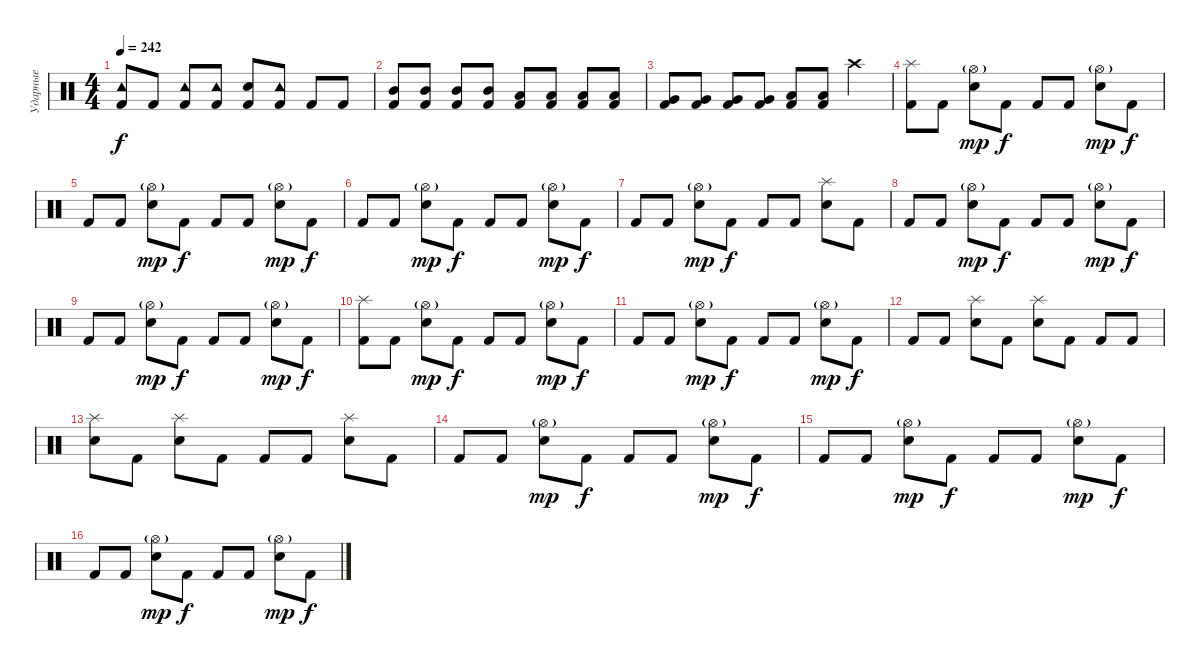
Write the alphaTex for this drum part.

\track ("Ударные" "Ударные") {instrument percussion}
\staff {score}
\articulation defaults
\ts (4 4)
\tempo 242
\clef neutral
\ks c
("Tambourine (hit)" "Kick (hit) 2").8{dy f} "Kick (hit) 2".8 ("Tambourine (hit)" "Kick (hit) 2").8 ("Tambourine (hit)" "Kick (hit) 2").8 ("Electric Snare (hit)" "Kick (hit) 2").8 ("Tambourine (hit)" "Kick (hit) 2").8 "Kick (hit) 2".8 "Kick (hit) 2".8 |
("Mid Tom (hit)" "Kick (hit) 2").8 ("Mid Tom (hit)" "Kick (hit) 2").8 ("Mid Tom (hit)" "Kick (hit) 2").8 ("Mid Tom (hit)" "Kick (hit) 2").8 ("Low Tom (hit)" "Kick (hit) 2").8 ("Low Tom (hit)" "Kick (hit) 2").8 ("Low Tom (hit)" "Kick (hit) 2").8 ("Low Tom (hit)" "Kick (hit) 2").8 |
("Very Low Tom (hit)" "Kick (hit) 2").8 ("Very Low Tom (hit)" "Kick (hit) 2").8 ("Very Low Tom (hit)" "Kick (hit) 2").8 ("Very Low Tom (hit)" "Kick (hit) 2").8 ("Low Floor Tom (hit)" "Kick (hit) 2").8 ("Low Floor Tom (hit)" "Kick (hit) 2").8 "Crash high (hit)".4 |
("Splash (hit)" "Kick (hit) 2").8 "Kick (hit) 2".8 ("Hi-Hat (open)"{g} "Electric Snare (hit)").8{dy mp} "Kick (hit) 2".8{dy f} "Kick (hit) 2".8 "Kick (hit) 2".8 ("Hi-Hat (open)"{g} "Electric Snare (hit)").8{dy mp} "Kick (hit) 2".8{dy f} |
"Kick (hit) 2".8 "Kick (hit) 2".8 ("Hi-Hat (open)"{g} "Electric Snare (hit)").8{dy mp} "Kick (hit) 2".8{dy f} "Kick (hit) 2".8 "Kick (hit) 2".8 ("Hi-Hat (open)"{g} "Electric Snare (hit)").8{dy mp} "Kick (hit) 2".8{dy f} |
"Kick (hit) 2".8 "Kick (hit) 2".8 ("Hi-Hat (open)"{g} "Electric Snare (hit)").8{dy mp} "Kick (hit) 2".8{dy f} "Kick (hit) 2".8 "Kick (hit) 2".8 ("Hi-Hat (open)"{g} "Electric Snare (hit)").8{dy mp} "Kick (hit) 2".8{dy f} |
"Kick (hit) 2".8 "Kick (hit) 2".8 ("Hi-Hat (open)"{g} "Electric Snare (hit)").8{dy mp} "Kick (hit) 2".8{dy f} "Kick (hit) 2".8 "Kick (hit) 2".8 ("Splash (hit)" "Electric Snare (hit)").8 "Kick (hit) 2".8 |
"Kick (hit) 2".8 "Kick (hit) 2".8 ("Hi-Hat (open)"{g} "Electric Snare (hit)").8{dy mp} "Kick (hit) 2".8{dy f} "Kick (hit) 2".8 "Kick (hit) 2".8 ("Hi-Hat (open)"{g} "Electric Snare (hit)").8{dy mp} "Kick (hit) 2".8{dy f} |
"Kick (hit) 2".8 "Kick (hit) 2".8 ("Hi-Hat (open)"{g} "Electric Snare (hit)").8{dy mp} "Kick (hit) 2".8{dy f} "Kick (hit) 2".8 "Kick (hit) 2".8 ("Hi-Hat (open)"{g} "Electric Snare (hit)").8{dy mp} "Kick (hit) 2".8{dy f} |
("Splash (hit)" "Kick (hit) 2").8 "Kick (hit) 2".8 ("Hi-Hat (open)"{g} "Electric Snare (hit)").8{dy mp} "Kick (hit) 2".8{dy f} "Kick (hit) 2".8 "Kick (hit) 2".8 ("Hi-Hat (open)"{g} "Electric Snare (hit)").8{dy mp} "Kick (hit) 2".8{dy f} |
"Kick (hit) 2".8 "Kick (hit) 2".8 ("Hi-Hat (open)"{g} "Electric Snare (hit)").8{dy mp} "Kick (hit) 2".8{dy f} "Kick (hit) 2".8 "Kick (hit) 2".8 ("Hi-Hat (open)"{g} "Electric Snare (hit)").8{dy mp} "Kick (hit) 2".8{dy f} |
"Kick (hit) 2".8 "Kick (hit) 2".8 ("Splash (hit)" "Electric Snare (hit)").8 "Kick (hit) 2".8 ("Splash (hit)" "Electric Snare (hit)").8 "Kick (hit) 2".8 "Kick (hit) 2".8 "Kick (hit) 2".8 |
("Splash (hit)" "Electric Snare (hit)").8 "Kick (hit) 2".8 ("Splash (hit)" "Electric Snare (hit)").8 "Kick (hit) 2".8 "Kick (hit) 2".8 "Kick (hit) 2".8 ("Splash (hit)" "Electric Snare (hit)").8 "Kick (hit) 2".8 |
"Kick (hit) 2".8 "Kick (hit) 2".8 ("Hi-Hat (open)"{g} "Electric Snare (hit)").8{dy mp} "Kick (hit) 2".8{dy f} "Kick (hit) 2".8 "Kick (hit) 2".8 ("Hi-Hat (open)"{g} "Electric Snare (hit)").8{dy mp} "Kick (hit) 2".8{dy f} |
"Kick (hit) 2".8 "Kick (hit) 2".8 ("Hi-Hat (open)"{g} "Electric Snare (hit)").8{dy mp} "Kick (hit) 2".8{dy f} "Kick (hit) 2".8 "Kick (hit) 2".8 ("Hi-Hat (open)"{g} "Electric Snare (hit)").8{dy mp} "Kick (hit) 2".8{dy f} |
"Kick (hit) 2".8 "Kick (hit) 2".8 ("Hi-Hat (open)"{g} "Electric Snare (hit)").8{dy mp} "Kick (hit) 2".8{dy f} "Kick (hit) 2".8 "Kick (hit) 2".8 ("Hi-Hat (open)"{g} "Electric Snare (hit)").8{dy mp} "Kick (hit) 2".8{dy f}
